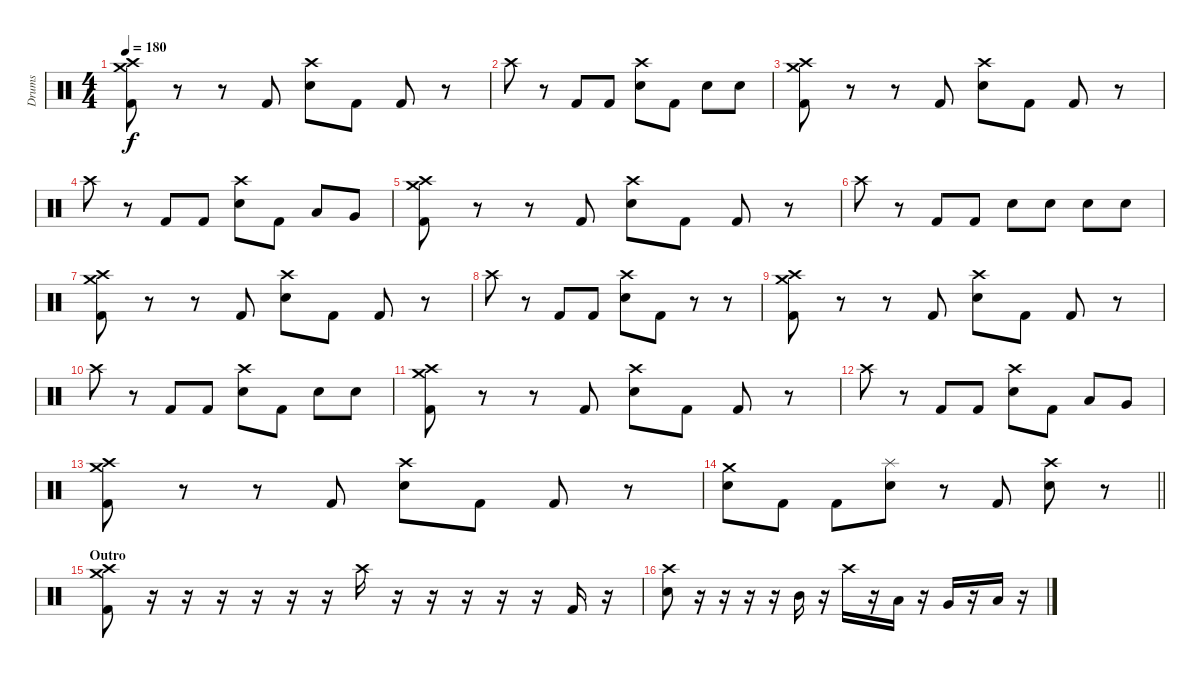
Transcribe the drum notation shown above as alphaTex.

\track ("Drums" "Drums") {instrument percussion}
\staff {score}
\articulation defaults
\ts (4 4)
\tempo 180
\clef neutral
\ks c
("Crash high (hit)" "Crash medium (hit)" "Kick (hit) 2").8{dy f} r.8 r.8 "Kick (hit) 2".8 ("Crash high (hit)" "Electric Snare (hit)").8 "Kick (hit) 2".8 "Kick (hit) 2".8 r.8 |
"Crash high (hit)".8 r.8 "Kick (hit) 2".8 "Kick (hit) 2".8 ("Crash high (hit)" "Electric Snare (hit)").8 "Kick (hit) 2".8 "Electric Snare (hit)".8 "Electric Snare (hit)".8 |
("Crash high (hit)" "Crash medium (hit)" "Kick (hit) 2").8 r.8 r.8 "Kick (hit) 2".8 ("Crash high (hit)" "Electric Snare (hit)").8 "Kick (hit) 2".8 "Kick (hit) 2".8 r.8 |
"Crash high (hit)".8 r.8 "Kick (hit) 2".8 "Kick (hit) 2".8 ("Crash high (hit)" "Electric Snare (hit)").8 "Kick (hit) 2".8 "Low Tom (hit)".8 "Very Low Tom (hit)".8 |
("Crash high (hit)" "Crash medium (hit)" "Kick (hit) 2").8 r.8 r.8 "Kick (hit) 2".8 ("Crash high (hit)" "Electric Snare (hit)").8 "Kick (hit) 2".8 "Kick (hit) 2".8 r.8 |
"Crash high (hit)".8 r.8 "Kick (hit) 2".8 "Kick (hit) 2".8 "Electric Snare (hit)".8 "Electric Snare (hit)".8 "Electric Snare (hit)".8 "Electric Snare (hit)".8 |
("Crash high (hit)" "Crash medium (hit)" "Kick (hit) 2").8 r.8 r.8 "Kick (hit) 2".8 ("Crash high (hit)" "Electric Snare (hit)").8 "Kick (hit) 2".8 "Kick (hit) 2".8 r.8 |
"Crash high (hit)".8 r.8 "Kick (hit) 2".8 "Kick (hit) 2".8 ("Crash high (hit)" "Electric Snare (hit)").8 "Kick (hit) 2".8 r.8 r.8 |
("Crash high (hit)" "Crash medium (hit)" "Kick (hit) 2").8 r.8 r.8 "Kick (hit) 2".8 ("Crash high (hit)" "Electric Snare (hit)").8 "Kick (hit) 2".8 "Kick (hit) 2".8 r.8 |
"Crash high (hit)".8 r.8 "Kick (hit) 2".8 "Kick (hit) 2".8 ("Crash high (hit)" "Electric Snare (hit)").8 "Kick (hit) 2".8 "Electric Snare (hit)".8 "Electric Snare (hit)".8 |
("Crash high (hit)" "Crash medium (hit)" "Kick (hit) 2").8 r.8 r.8 "Kick (hit) 2".8 ("Crash high (hit)" "Electric Snare (hit)").8 "Kick (hit) 2".8 "Kick (hit) 2".8 r.8 |
"Crash high (hit)".8 r.8 "Kick (hit) 2".8 "Kick (hit) 2".8 ("Crash high (hit)" "Electric Snare (hit)").8 "Kick (hit) 2".8 "Low Tom (hit)".8 "Very Low Tom (hit)".8 |
("Crash high (hit)" "Crash medium (hit)" "Kick (hit) 2").8 r.8 r.8 "Kick (hit) 2".8 ("Crash high (hit)" "Electric Snare (hit)").8 "Kick (hit) 2".8 "Kick (hit) 2".8 r.8 |
\barLineRight lightlight
("Crash medium (hit)" "Electric Snare (hit)").8 "Kick (hit) 2".8 "Kick (hit) 2".8 ("Splash (hit)" "Electric Snare (hit)").8 r.8 "Kick (hit) 2".8 ("Crash high (hit)" "Electric Snare (hit)").8 r.8 |
\section ("" "Outro")
("Crash medium (hit)" "Crash high (hit)" "Kick (hit) 2").8 r.16 r.16 r.16 r.16 r.16 r.16 "Crash high (hit)".16 r.16 r.16 r.16 r.16 r.16 "Kick (hit) 2".16 r.16 |
("Crash high (hit)" "Electric Snare (hit)").8 r.16 r.16 r.16 r.16 "Mid Tom (hit)".16 r.16 "Crash high (hit)".16 r.16 "Low Tom (hit)".16 r.16 "Very Low Tom (hit)".16 r.16 "Low Floor Tom (hit)".16 r.16
